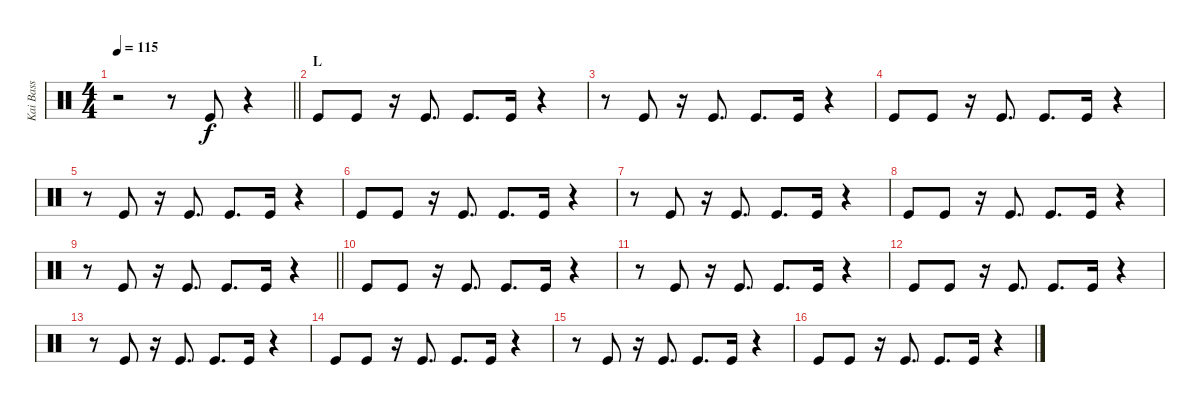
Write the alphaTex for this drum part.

\track ("Kai Bass" "Kai Bass") {instrument percussion}
\staff {score}
\articulation defaults
\ts (4 4)
\tempo 115
\clef neutral
\barLineRight lightlight
\ks c
r.2{dy f} r.8 "Kick (hit)".8 r.4 |
\section ("" "L")
"Kick (hit)".8 "Kick (hit)".8 r.16 "Kick (hit)".8{d} "Kick (hit)".8{d} "Kick (hit)".16 r.4 |
r.8 "Kick (hit)".8 r.16 "Kick (hit)".8{d} "Kick (hit)".8{d} "Kick (hit)".16 r.4 |
"Kick (hit)".8 "Kick (hit)".8 r.16 "Kick (hit)".8{d} "Kick (hit)".8{d} "Kick (hit)".16 r.4 |
r.8 "Kick (hit)".8 r.16 "Kick (hit)".8{d} "Kick (hit)".8{d} "Kick (hit)".16 r.4 |
"Kick (hit)".8 "Kick (hit)".8 r.16 "Kick (hit)".8{d} "Kick (hit)".8{d} "Kick (hit)".16 r.4 |
r.8 "Kick (hit)".8 r.16 "Kick (hit)".8{d} "Kick (hit)".8{d} "Kick (hit)".16 r.4 |
"Kick (hit)".8 "Kick (hit)".8 r.16 "Kick (hit)".8{d} "Kick (hit)".8{d} "Kick (hit)".16 r.4 |
\barLineRight lightlight
r.8 "Kick (hit)".8 r.16 "Kick (hit)".8{d} "Kick (hit)".8{d} "Kick (hit)".16 r.4 |
"Kick (hit)".8 "Kick (hit)".8 r.16 "Kick (hit)".8{d} "Kick (hit)".8{d} "Kick (hit)".16 r.4 |
r.8 "Kick (hit)".8 r.16 "Kick (hit)".8{d} "Kick (hit)".8{d} "Kick (hit)".16 r.4 |
"Kick (hit)".8 "Kick (hit)".8 r.16 "Kick (hit)".8{d} "Kick (hit)".8{d} "Kick (hit)".16 r.4 |
r.8 "Kick (hit)".8 r.16 "Kick (hit)".8{d} "Kick (hit)".8{d} "Kick (hit)".16 r.4 |
"Kick (hit)".8 "Kick (hit)".8 r.16 "Kick (hit)".8{d} "Kick (hit)".8{d} "Kick (hit)".16 r.4 |
r.8 "Kick (hit)".8 r.16 "Kick (hit)".8{d} "Kick (hit)".8{d} "Kick (hit)".16 r.4 |
"Kick (hit)".8 "Kick (hit)".8 r.16 "Kick (hit)".8{d} "Kick (hit)".8{d} "Kick (hit)".16 r.4
